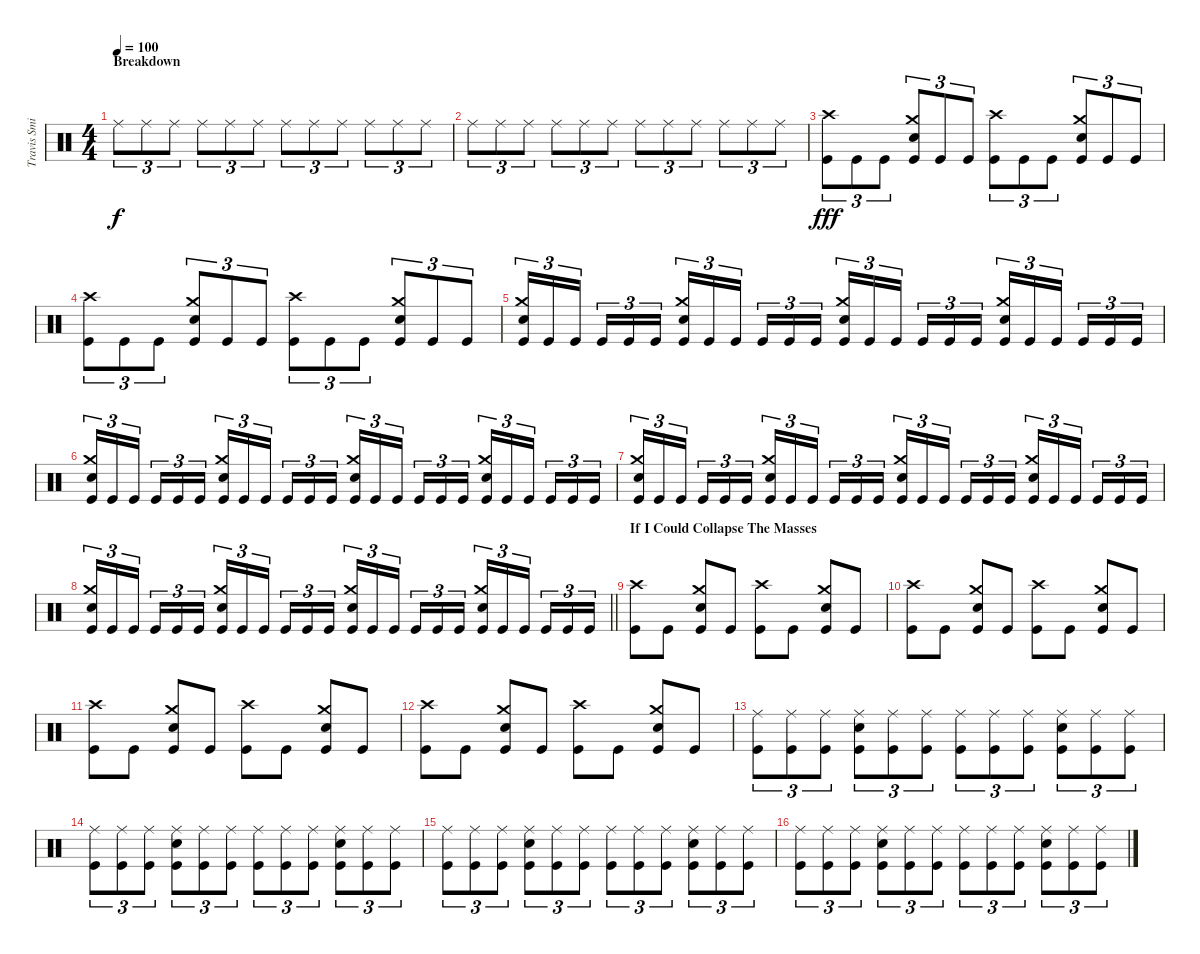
\track ("Travis Smith" "Travis Smi") {instrument percussion}
\staff {score}
\articulation defaults
\ts (4 4)
\section ("" "Breakdown")
\tempo 100
\clef neutral
\ks c "Ride (middle)".8{tu (3 2) dy f} "Ride (middle)".8{tu (3 2)} "Ride (middle)".8{tu (3 2)} "Ride (middle)".8{tu (3 2)} "Ride (middle)".8{tu (3 2)} "Ride (middle)".8{tu (3 2)} "Ride (middle)".8{tu (3 2)} "Ride (middle)".8{tu (3 2)} "Ride (middle)".8{tu (3 2)} "Ride (middle)".8{tu (3 2)} "Ride (middle)".8{tu (3 2)} "Ride (middle)".8{tu (3 2)}
|
"Ride (middle)".8{tu (3 2)} "Ride (middle)".8{tu (3 2)} "Ride (middle)".8{tu (3 2)} "Ride (middle)".8{tu (3 2)} "Ride (middle)".8{tu (3 2)} "Ride (middle)".8{tu (3 2)} "Ride (middle)".8{tu (3 2)} "Ride (middle)".8{tu (3 2)} "Ride (middle)".8{tu (3 2)} "Ride (middle)".8{tu (3 2)} "Ride (middle)".8{tu (3 2)} "Ride (middle)".8{tu (3 2)} |
("Crash high (hit)" "Kick (hit)").8{tu (3 2) dy fff} "Kick (hit)".8{tu (3 2)} "Kick (hit)".8{tu (3 2)} ("Crash medium (hit)" "Electric Snare (hit)" "Kick (hit)").8{tu (3 2)} "Kick (hit)".8{tu (3 2)} "Kick (hit)".8{tu (3 2)} ("Crash high (hit)" "Kick (hit)").8{tu (3 2)} "Kick (hit)".8{tu (3 2)} "Kick (hit)".8{tu (3 2)} ("Crash medium (hit)" "Electric Snare (hit)" "Kick (hit)").8{tu (3 2)} "Kick (hit)".8{tu (3 2)} "Kick (hit)".8{tu (3 2)} |
("Crash high (hit)" "Kick (hit)").8{tu (3 2)} "Kick (hit)".8{tu (3 2)} "Kick (hit)".8{tu (3 2)} ("Crash medium (hit)" "Electric Snare (hit)" "Kick (hit)").8{tu (3 2)} "Kick (hit)".8{tu (3 2)} "Kick (hit)".8{tu (3 2)} ("Crash high (hit)" "Kick (hit)").8{tu (3 2)} "Kick (hit)".8{tu (3 2)} "Kick (hit)".8{tu (3 2)} ("Crash medium (hit)" "Electric Snare (hit)" "Kick (hit)").8{tu (3 2)} "Kick (hit)".8{tu (3 2)} "Kick (hit)".8{tu (3 2)} |
("Crash medium (hit)" "Electric Snare (hit)" "Kick (hit)").16{tu (3 2)} "Kick (hit)".16{tu (3 2)} "Kick (hit)".16{tu (3 2) beam splitsecondary} "Kick (hit)".16{tu (3 2)} "Kick (hit)".16{tu (3 2)} "Kick (hit)".16{tu (3 2)} ("Crash medium (hit)" "Electric Snare (hit)" "Kick (hit)").16{tu (3 2)} "Kick (hit)".16{tu (3 2)} "Kick (hit)".16{tu (3 2) beam splitsecondary} "Kick (hit)".16{tu (3 2)} "Kick (hit)".16{tu (3 2)} "Kick (hit)".16{tu (3 2)} ("Crash medium (hit)" "Electric Snare (hit)" "Kick (hit)").16{tu (3 2)} "Kick (hit)".16{tu (3 2)} "Kick (hit)".16{tu (3 2) beam splitsecondary} "Kick (hit)".16{tu (3 2)} "Kick (hit)".16{tu (3 2)} "Kick (hit)".16{tu (3 2)} ("Crash medium (hit)" "Electric Snare (hit)" "Kick (hit)").16{tu (3 2)} "Kick (hit)".16{tu (3 2)} "Kick (hit)".16{tu (3 2) beam splitsecondary} "Kick (hit)".16{tu (3 2)} "Kick (hit)".16{tu (3 2)} "Kick (hit)".16{tu (3 2)} |
("Crash medium (hit)" "Electric Snare (hit)" "Kick (hit)").16{tu (3 2)} "Kick (hit)".16{tu (3 2)} "Kick (hit)".16{tu (3 2) beam splitsecondary} "Kick (hit)".16{tu (3 2)} "Kick (hit)".16{tu (3 2)} "Kick (hit)".16{tu (3 2)} ("Crash medium (hit)" "Electric Snare (hit)" "Kick (hit)").16{tu (3 2)} "Kick (hit)".16{tu (3 2)} "Kick (hit)".16{tu (3 2) beam splitsecondary} "Kick (hit)".16{tu (3 2)} "Kick (hit)".16{tu (3 2)} "Kick (hit)".16{tu (3 2)} ("Crash medium (hit)" "Electric Snare (hit)" "Kick (hit)").16{tu (3 2)} "Kick (hit)".16{tu (3 2)} "Kick (hit)".16{tu (3 2) beam splitsecondary} "Kick (hit)".16{tu (3 2)} "Kick (hit)".16{tu (3 2)} "Kick (hit)".16{tu (3 2)} ("Crash medium (hit)" "Electric Snare (hit)" "Kick (hit)").16{tu (3 2)} "Kick (hit)".16{tu (3 2)} "Kick (hit)".16{tu (3 2) beam splitsecondary} "Kick (hit)".16{tu (3 2)} "Kick (hit)".16{tu (3 2)} "Kick (hit)".16{tu (3 2)} |
("Crash medium (hit)" "Electric Snare (hit)" "Kick (hit)").16{tu (3 2)} "Kick (hit)".16{tu (3 2)} "Kick (hit)".16{tu (3 2) beam splitsecondary} "Kick (hit)".16{tu (3 2)} "Kick (hit)".16{tu (3 2)} "Kick (hit)".16{tu (3 2)} ("Crash medium (hit)" "Electric Snare (hit)" "Kick (hit)").16{tu (3 2)} "Kick (hit)".16{tu (3 2)} "Kick (hit)".16{tu (3 2) beam splitsecondary} "Kick (hit)".16{tu (3 2)} "Kick (hit)".16{tu (3 2)} "Kick (hit)".16{tu (3 2)} ("Crash medium (hit)" "Electric Snare (hit)" "Kick (hit)").16{tu (3 2)} "Kick (hit)".16{tu (3 2)} "Kick (hit)".16{tu (3 2) beam splitsecondary} "Kick (hit)".16{tu (3 2)} "Kick (hit)".16{tu (3 2)} "Kick (hit)".16{tu (3 2)} ("Crash medium (hit)" "Electric Snare (hit)" "Kick (hit)").16{tu (3 2)} "Kick (hit)".16{tu (3 2)} "Kick (hit)".16{tu (3 2) beam splitsecondary} "Kick (hit)".16{tu (3 2)} "Kick (hit)".16{tu (3 2)} "Kick (hit)".16{tu (3 2)} |
\barLineRight lightlight
("Crash medium (hit)" "Electric Snare (hit)" "Kick (hit)").16{tu (3 2)} "Kick (hit)".16{tu (3 2)} "Kick (hit)".16{tu (3 2) beam splitsecondary} "Kick (hit)".16{tu (3 2)} "Kick (hit)".16{tu (3 2)} "Kick (hit)".16{tu (3 2)} ("Crash medium (hit)" "Electric Snare (hit)" "Kick (hit)").16{tu (3 2)} "Kick (hit)".16{tu (3 2)} "Kick (hit)".16{tu (3 2) beam splitsecondary} "Kick (hit)".16{tu (3 2)} "Kick (hit)".16{tu (3 2)} "Kick (hit)".16{tu (3 2)} ("Crash medium (hit)" "Electric Snare (hit)" "Kick (hit)").16{tu (3 2)} "Kick (hit)".16{tu (3 2)} "Kick (hit)".16{tu (3 2) beam splitsecondary} "Kick (hit)".16{tu (3 2)} "Kick (hit)".16{tu (3 2)} "Kick (hit)".16{tu (3 2)} ("Crash medium (hit)" "Electric Snare (hit)" "Kick (hit)").16{tu (3 2)} "Kick (hit)".16{tu (3 2)} "Kick (hit)".16{tu (3 2) beam splitsecondary} "Kick (hit)".16{tu (3 2)} "Kick (hit)".16{tu (3 2)} "Kick (hit)".16{tu (3 2)} |
\section ("" "If I Could Collapse The Masses")
("Crash high (hit)" "Kick (hit)").8 "Kick (hit)".8 ("Crash medium (hit)" "Electric Snare (hit)" "Kick (hit)").8 "Kick (hit)".8 ("Crash high (hit)" "Kick (hit)").8 "Kick (hit)".8 ("Crash medium (hit)" "Electric Snare (hit)" "Kick (hit)").8 "Kick (hit)".8 |
("Crash high (hit)" "Kick (hit)").8 "Kick (hit)".8 ("Crash medium (hit)" "Electric Snare (hit)" "Kick (hit)").8 "Kick (hit)".8 ("Crash high (hit)" "Kick (hit)").8 "Kick (hit)".8 ("Crash medium (hit)" "Electric Snare (hit)" "Kick (hit)").8 "Kick (hit)".8 |
("Crash high (hit)" "Kick (hit)").8 "Kick (hit)".8 ("Crash medium (hit)" "Electric Snare (hit)" "Kick (hit)").8 "Kick (hit)".8 ("Crash high (hit)" "Kick (hit)").8 "Kick (hit)".8 ("Crash medium (hit)" "Electric Snare (hit)" "Kick (hit)").8 "Kick (hit)".8 |
("Crash high (hit)" "Kick (hit)").8 "Kick (hit)".8 ("Crash medium (hit)" "Electric Snare (hit)" "Kick (hit)").8 "Kick (hit)".8 ("Crash high (hit)" "Kick (hit)").8 "Kick (hit)".8 ("Crash medium (hit)" "Electric Snare (hit)" "Kick (hit)").8 "Kick (hit)".8 |
("Ride (middle)" "Kick (hit)").8{tu (3 2)} ("Ride (middle)" "Kick (hit)").8{tu (3 2)} ("Ride (middle)" "Kick (hit)").8{tu (3 2)} ("Ride (middle)" "Electric Snare (hit)" "Kick (hit)").8{tu (3 2)} ("Ride (middle)" "Kick (hit)").8{tu (3 2)} ("Ride (middle)" "Kick (hit)").8{tu (3 2)} ("Ride (middle)" "Kick (hit)").8{tu (3 2)} ("Ride (middle)" "Kick (hit)").8{tu (3 2)} ("Ride (middle)" "Kick (hit)").8{tu (3 2)} ("Ride (middle)" "Electric Snare (hit)" "Kick (hit)").8{tu (3 2)} ("Ride (middle)" "Kick (hit)").8{tu (3 2)} ("Ride (middle)" "Kick (hit)").8{tu (3 2)} |
("Ride (middle)" "Kick (hit)").8{tu (3 2)} ("Ride (middle)" "Kick (hit)").8{tu (3 2)} ("Ride (middle)" "Kick (hit)").8{tu (3 2)} ("Ride (middle)" "Electric Snare (hit)" "Kick (hit)").8{tu (3 2)} ("Ride (middle)" "Kick (hit)").8{tu (3 2)} ("Ride (middle)" "Kick (hit)").8{tu (3 2)} ("Ride (middle)" "Kick (hit)").8{tu (3 2)} ("Ride (middle)" "Kick (hit)").8{tu (3 2)} ("Ride (middle)" "Kick (hit)").8{tu (3 2)} ("Ride (middle)" "Electric Snare (hit)" "Kick (hit)").8{tu (3 2)} ("Ride (middle)" "Kick (hit)").8{tu (3 2)} ("Ride (middle)" "Kick (hit)").8{tu (3 2)} |
("Ride (middle)" "Kick (hit)").8{tu (3 2)} ("Ride (middle)" "Kick (hit)").8{tu (3 2)} ("Ride (middle)" "Kick (hit)").8{tu (3 2)} ("Ride (middle)" "Electric Snare (hit)" "Kick (hit)").8{tu (3 2)} ("Ride (middle)" "Kick (hit)").8{tu (3 2)} ("Ride (middle)" "Kick (hit)").8{tu (3 2)} ("Ride (middle)" "Kick (hit)").8{tu (3 2)} ("Ride (middle)" "Kick (hit)").8{tu (3 2)} ("Ride (middle)" "Kick (hit)").8{tu (3 2)} ("Ride (middle)" "Electric Snare (hit)" "Kick (hit)").8{tu (3 2)} ("Ride (middle)" "Kick (hit)").8{tu (3 2)} ("Ride (middle)" "Kick (hit)").8{tu (3 2)} |
("Ride (middle)" "Kick (hit)").8{tu (3 2)} ("Ride (middle)" "Kick (hit)").8{tu (3 2)} ("Ride (middle)" "Kick (hit)").8{tu (3 2)} ("Ride (middle)" "Electric Snare (hit)" "Kick (hit)").8{tu (3 2)} ("Ride (middle)" "Kick (hit)").8{tu (3 2)} ("Ride (middle)" "Kick (hit)").8{tu (3 2)} ("Ride (middle)" "Kick (hit)").8{tu (3 2)} ("Ride (middle)" "Kick (hit)").8{tu (3 2)} ("Ride (middle)" "Kick (hit)").8{tu (3 2)} ("Ride (middle)" "Electric Snare (hit)" "Kick (hit)").8{tu (3 2)} ("Ride (middle)" "Kick (hit)").8{tu (3 2)} ("Ride (middle)" "Kick (hit)").8{tu (3 2)}
